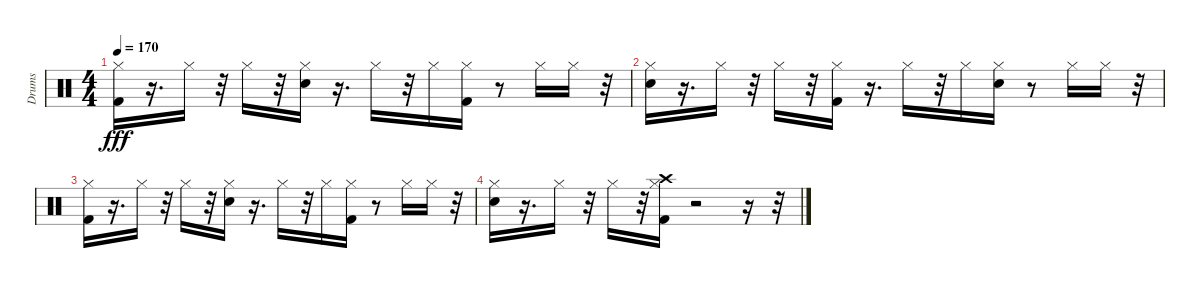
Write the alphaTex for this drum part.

\track ("Drums" "Drums") {instrument percussion}
\staff {score}
\articulation defaults
\ts (4 4)
\tempo 170
\clef neutral
\ks c
("Kick (hit) 2" "Hi-Hat (closed)").16{dy fff} r.16{d} "Hi-Hat (closed)".16 r.32 "Hi-Hat (closed)".16 r.32 ("Snare (hit) 2" "Hi-Hat (closed)").16 r.16{d} "Hi-Hat (closed)".16 r.32 "Hi-Hat (closed)".16 ("Kick (hit) 2" "Hi-Hat (closed)").16 r.8 "Hi-Hat (closed)".16 "Hi-Hat (closed)".16 r.32 |
("Snare (hit) 2" "Hi-Hat (closed)").16 r.16{d} "Hi-Hat (closed)".16 r.32 "Hi-Hat (closed)".16 r.32 ("Kick (hit) 2" "Hi-Hat (closed)").16 r.16{d} "Hi-Hat (closed)".16 r.32 "Hi-Hat (closed)".16 ("Snare (hit) 2" "Hi-Hat (closed)").16 r.8 "Hi-Hat (closed)".16 "Hi-Hat (closed)".16 r.32 |
("Kick (hit) 2" "Hi-Hat (closed)").16 r.16{d} "Hi-Hat (closed)".16 r.32 "Hi-Hat (closed)".16 r.32 ("Snare (hit) 2" "Hi-Hat (closed)").16 r.16{d} "Hi-Hat (closed)".16 r.32 "Hi-Hat (closed)".16 ("Kick (hit) 2" "Hi-Hat (closed)").16 r.8 "Hi-Hat (closed)".16 "Hi-Hat (closed)".16 r.32 |
("Snare (hit) 2" "Hi-Hat (closed)").16 r.16{d} "Hi-Hat (closed)".16 r.32 "Hi-Hat (closed)".16 r.32 ("Kick (hit) 2" "Hi-Hat (closed)" "Crash high (hit)").16 r.2 r.16 r.32
